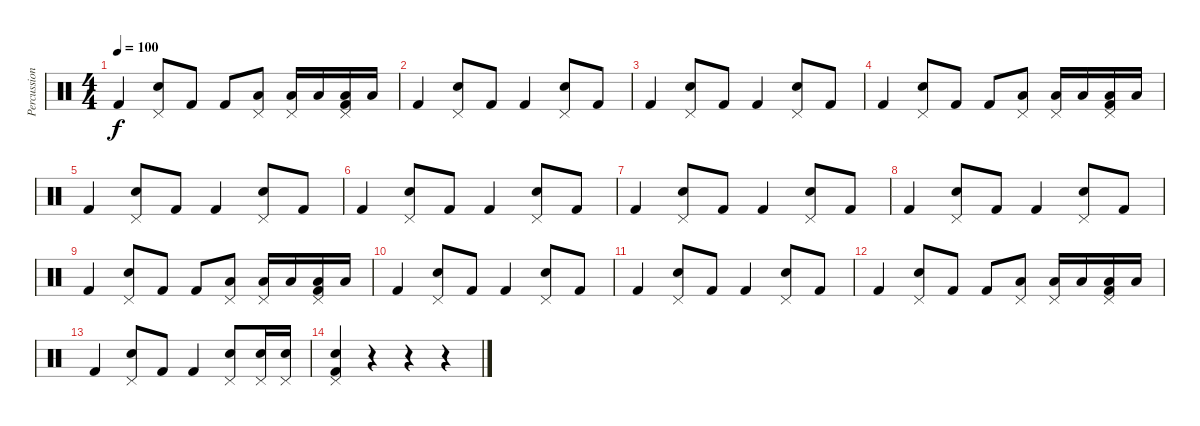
\track ("Percussion" "Percussion") {instrument percussion}
\staff {score}
\articulation defaults
\ts (4 4)
\tempo 100
\clef neutral
\ks c "Kick (hit) 2".4{dy f}
("Pedal Hi-Hat (hit)" "Electric Snare (hit)").8 "Kick (hit) 2".8 "Kick (hit) 2".8 ("Pedal Hi-Hat (hit)" "Low Floor Tom (hit)").8 ("Pedal Hi-Hat (hit)" "Low Floor Tom (hit)").16 "Low Floor Tom (hit)".16 ("Pedal Hi-Hat (hit)" "Low Floor Tom (hit)" "Kick (hit) 2").16 "Low Floor Tom (hit)".16 |
"Kick (hit) 2".4 ("Pedal Hi-Hat (hit)" "Electric Snare (hit)").8 "Kick (hit) 2".8 "Kick (hit) 2".4 ("Pedal Hi-Hat (hit)" "Electric Snare (hit)").8 "Kick (hit) 2".8 |
"Kick (hit) 2".4 ("Pedal Hi-Hat (hit)" "Electric Snare (hit)").8 "Kick (hit) 2".8 "Kick (hit) 2".4 ("Pedal Hi-Hat (hit)" "Electric Snare (hit)").8 "Kick (hit) 2".8 |
"Kick (hit) 2".4 ("Pedal Hi-Hat (hit)" "Electric Snare (hit)").8 "Kick (hit) 2".8 "Kick (hit) 2".8 ("Pedal Hi-Hat (hit)" "Low Floor Tom (hit)").8 ("Pedal Hi-Hat (hit)" "Low Floor Tom (hit)").16 "Low Floor Tom (hit)".16 ("Pedal Hi-Hat (hit)" "Low Floor Tom (hit)" "Kick (hit) 2").16 "Low Floor Tom (hit)".16 |
"Kick (hit) 2".4 ("Pedal Hi-Hat (hit)" "Electric Snare (hit)").8 "Kick (hit) 2".8 "Kick (hit) 2".4 ("Pedal Hi-Hat (hit)" "Electric Snare (hit)").8 "Kick (hit) 2".8 |
"Kick (hit) 2".4 ("Pedal Hi-Hat (hit)" "Electric Snare (hit)").8 "Kick (hit) 2".8 "Kick (hit) 2".4 ("Pedal Hi-Hat (hit)" "Electric Snare (hit)").8 "Kick (hit) 2".8 |
"Kick (hit) 2".4 ("Pedal Hi-Hat (hit)" "Electric Snare (hit)").8 "Kick (hit) 2".8 "Kick (hit) 2".4 ("Pedal Hi-Hat (hit)" "Electric Snare (hit)").8 "Kick (hit) 2".8 |
"Kick (hit) 2".4 ("Pedal Hi-Hat (hit)" "Electric Snare (hit)").8 "Kick (hit) 2".8 "Kick (hit) 2".4 ("Pedal Hi-Hat (hit)" "Electric Snare (hit)").8 "Kick (hit) 2".8 |
"Kick (hit) 2".4 ("Pedal Hi-Hat (hit)" "Electric Snare (hit)").8 "Kick (hit) 2".8 "Kick (hit) 2".8 ("Pedal Hi-Hat (hit)" "Low Floor Tom (hit)").8 ("Pedal Hi-Hat (hit)" "Low Floor Tom (hit)").16 "Low Floor Tom (hit)".16 ("Pedal Hi-Hat (hit)" "Low Floor Tom (hit)" "Kick (hit) 2").16 "Low Floor Tom (hit)".16 |
"Kick (hit) 2".4 ("Pedal Hi-Hat (hit)" "Electric Snare (hit)").8 "Kick (hit) 2".8 "Kick (hit) 2".4 ("Pedal Hi-Hat (hit)" "Electric Snare (hit)").8 "Kick (hit) 2".8 |
"Kick (hit) 2".4 ("Pedal Hi-Hat (hit)" "Electric Snare (hit)").8 "Kick (hit) 2".8 "Kick (hit) 2".4 ("Pedal Hi-Hat (hit)" "Electric Snare (hit)").8 "Kick (hit) 2".8 |
"Kick (hit) 2".4 ("Pedal Hi-Hat (hit)" "Electric Snare (hit)").8 "Kick (hit) 2".8 "Kick (hit) 2".8 ("Pedal Hi-Hat (hit)" "Low Floor Tom (hit)").8 ("Pedal Hi-Hat (hit)" "Low Floor Tom (hit)").16 "Low Floor Tom (hit)".16 ("Pedal Hi-Hat (hit)" "Low Floor Tom (hit)" "Kick (hit) 2").16 "Low Floor Tom (hit)".16 |
"Kick (hit) 2".4 ("Pedal Hi-Hat (hit)" "Electric Snare (hit)").8 "Kick (hit) 2".8 "Kick (hit) 2".4 ("Pedal Hi-Hat (hit)" "Electric Snare (hit)").8 ("Pedal Hi-Hat (hit)" "Electric Snare (hit)").16 ("Pedal Hi-Hat (hit)" "Electric Snare (hit)").16 |
("Pedal Hi-Hat (hit)" "Electric Snare (hit)" "Kick (hit) 2").4 r.4 r.4 r.4
